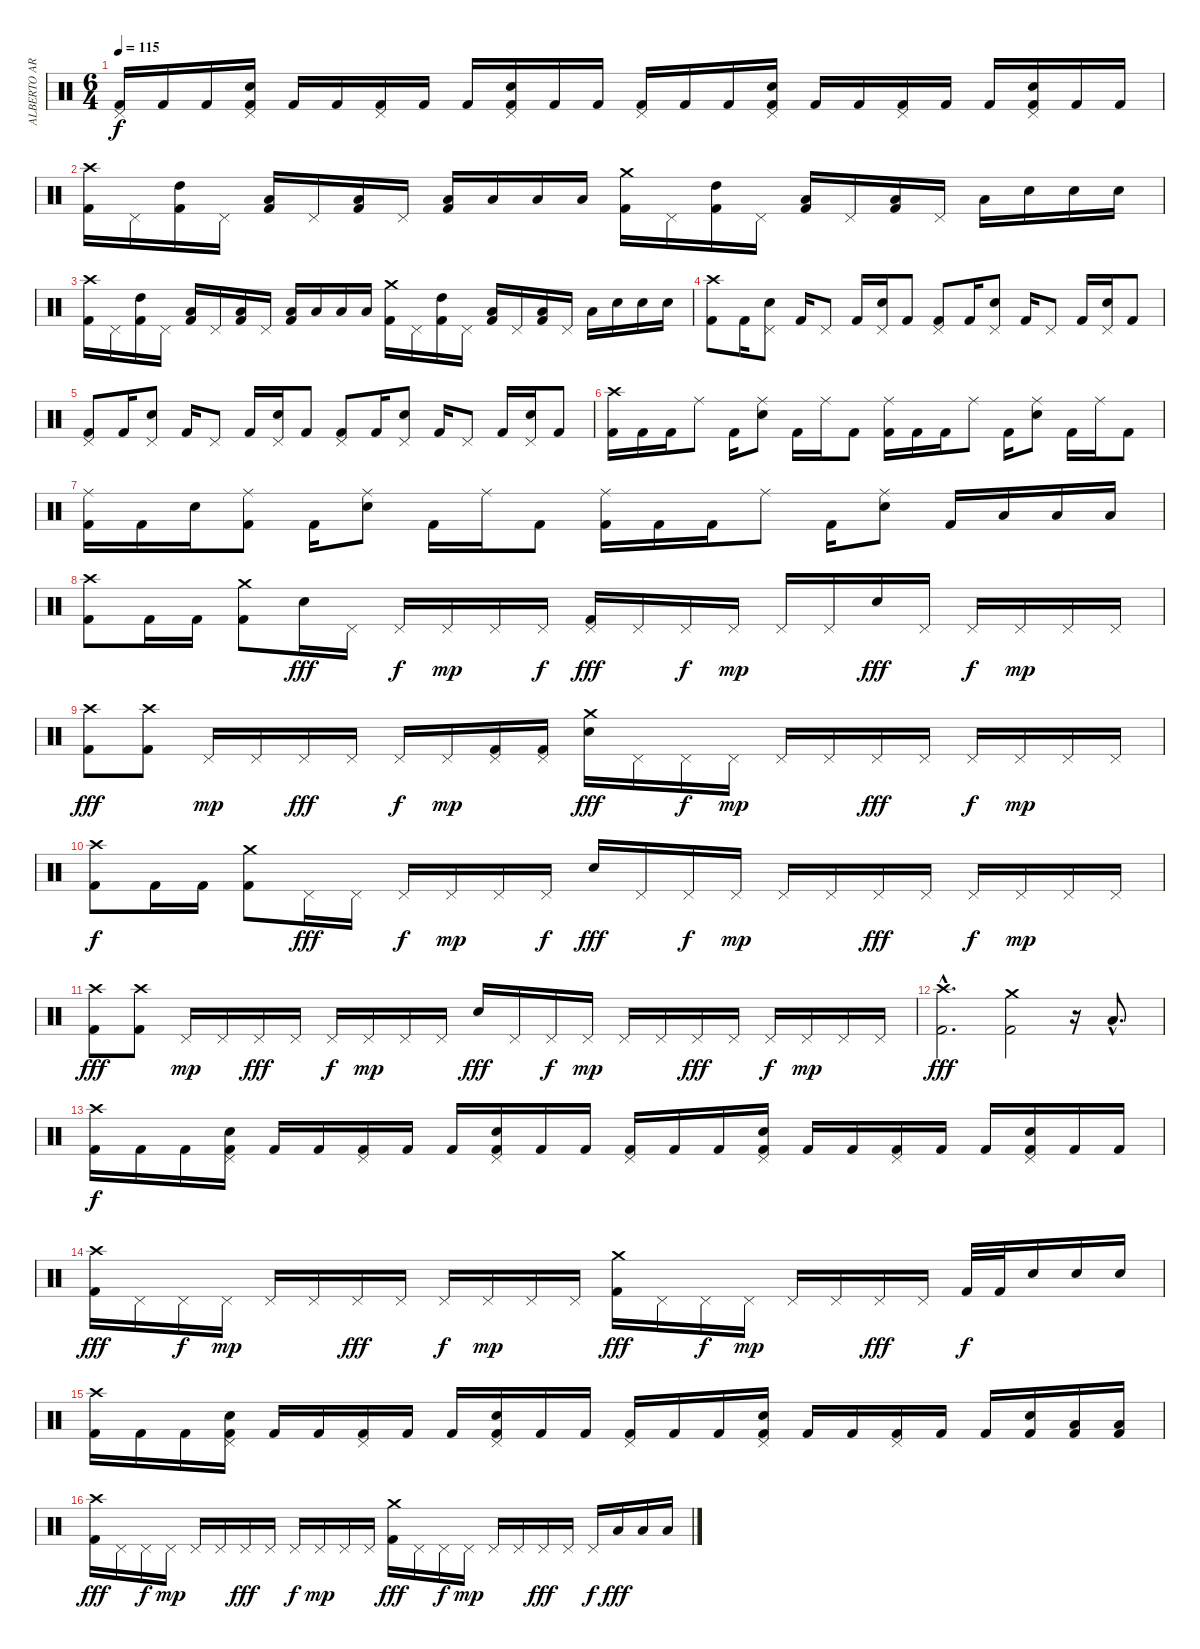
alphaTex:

\track ("ALBERTO ARDINES" "ALBERTO AR") {instrument percussion}
\staff {score}
\articulation defaults
\ts (6 4)
\tempo 115
\clef neutral
\ks c
("Pedal Hi-Hat (hit)" "Kick (hit) 2").16{dy f} "Kick (hit) 2".16 "Kick (hit) 2".16 ("Pedal Hi-Hat (hit)" "Electric Snare (hit)" "Kick (hit) 2").16 "Kick (hit) 2".16 "Kick (hit) 2".16 ("Pedal Hi-Hat (hit)" "Kick (hit) 2").16 "Kick (hit) 2".16 "Kick (hit) 2".16 ("Pedal Hi-Hat (hit)" "Electric Snare (hit)" "Kick (hit) 2").16 "Kick (hit) 2".16 "Kick (hit) 2".16 ("Pedal Hi-Hat (hit)" "Kick (hit) 2").16 "Kick (hit) 2".16 "Kick (hit) 2".16 ("Pedal Hi-Hat (hit)" "Electric Snare (hit)" "Kick (hit) 2").16 "Kick (hit) 2".16 "Kick (hit) 2".16 ("Pedal Hi-Hat (hit)" "Kick (hit) 2").16 "Kick (hit) 2".16 "Kick (hit) 2".16 ("Pedal Hi-Hat (hit)" "Electric Snare (hit)" "Kick (hit) 2").16 "Kick (hit) 2".16 "Kick (hit) 2".16 |
("Crash high (hit)" "Kick (hit) 2").16 "Pedal Hi-Hat (hit)".16 ("High Tom (hit)" "Kick (hit) 2").16 "Pedal Hi-Hat (hit)".16 ("Low Tom (hit)" "Kick (hit) 2").16 "Pedal Hi-Hat (hit)".16 ("Low Tom (hit)" "Kick (hit) 2").16 "Pedal Hi-Hat (hit)".16 ("Low Floor Tom (hit)" "Kick (hit) 2").16 "Low Tom (hit)".16 "Low Tom (hit)".16 "Low Tom (hit)".16 ("Crash medium (hit)" "Kick (hit) 2").16 "Pedal Hi-Hat (hit)".16 ("High Tom (hit)" "Kick (hit) 2").16 "Pedal Hi-Hat (hit)".16 ("Low Tom (hit)" "Kick (hit) 2").16 "Pedal Hi-Hat (hit)".16 ("Low Tom (hit)" "Kick (hit) 2").16 "Pedal Hi-Hat (hit)".16 "Low Floor Tom (hit)".16 "Electric Snare (hit)".16 "Electric Snare (hit)".16 "Electric Snare (hit)".16 |
("Crash high (hit)" "Kick (hit) 2").16 "Pedal Hi-Hat (hit)".16 ("High Tom (hit)" "Kick (hit) 2").16 "Pedal Hi-Hat (hit)".16 ("Low Tom (hit)" "Kick (hit) 2").16 "Pedal Hi-Hat (hit)".16 ("Low Tom (hit)" "Kick (hit) 2").16 "Pedal Hi-Hat (hit)".16 ("Low Floor Tom (hit)" "Kick (hit) 2").16 "Low Tom (hit)".16 "Low Tom (hit)".16 "Low Tom (hit)".16 ("Crash medium (hit)" "Kick (hit) 2").16 "Pedal Hi-Hat (hit)".16 ("High Tom (hit)" "Kick (hit) 2").16 "Pedal Hi-Hat (hit)".16 ("Low Tom (hit)" "Kick (hit) 2").16 "Pedal Hi-Hat (hit)".16 ("Low Tom (hit)" "Kick (hit) 2").16 "Pedal Hi-Hat (hit)".16 "Low Floor Tom (hit)".16 "Electric Snare (hit)".16 "Electric Snare (hit)".16 "Electric Snare (hit)".16 |
("Crash high (hit)" "Kick (hit) 2").8 "Kick (hit) 2".16 ("Pedal Hi-Hat (hit)" "Electric Snare (hit)").8 "Kick (hit) 2".16 "Pedal Hi-Hat (hit)".8 "Kick (hit) 2".16 ("Pedal Hi-Hat (hit)" "Electric Snare (hit)").16 "Kick (hit) 2".8 ("Pedal Hi-Hat (hit)" "Kick (hit) 2").8 "Kick (hit) 2".16 ("Pedal Hi-Hat (hit)" "Electric Snare (hit)").8 "Kick (hit) 2".16 "Pedal Hi-Hat (hit)".8 "Kick (hit) 2".16 ("Pedal Hi-Hat (hit)" "Electric Snare (hit)").16 "Kick (hit) 2".8 |
("Pedal Hi-Hat (hit)" "Kick (hit) 2").8 "Kick (hit) 2".16 ("Pedal Hi-Hat (hit)" "Electric Snare (hit)").8 "Kick (hit) 2".16 "Pedal Hi-Hat (hit)".8 "Kick (hit) 2".16 ("Pedal Hi-Hat (hit)" "Electric Snare (hit)").16 "Kick (hit) 2".8 ("Pedal Hi-Hat (hit)" "Kick (hit) 2").8 "Kick (hit) 2".16 ("Pedal Hi-Hat (hit)" "Electric Snare (hit)").8 "Kick (hit) 2".16 "Pedal Hi-Hat (hit)".8 "Kick (hit) 2".16 ("Pedal Hi-Hat (hit)" "Electric Snare (hit)").16 "Kick (hit) 2".8 |
("Crash high (hit)" "Kick (hit) 2").16 "Kick (hit) 2".16 "Kick (hit) 2".16 "Ride (middle)".8 "Kick (hit) 2".16 ("Ride (middle)" "Electric Snare (hit)").8 "Kick (hit) 2".16 "Ride (middle)".16 "Kick (hit) 2".8 ("Ride (middle)" "Kick (hit) 2").16 "Kick (hit) 2".16 "Kick (hit) 2".16 "Ride (middle)".8 "Kick (hit) 2".16 ("Ride (middle)" "Electric Snare (hit)").8 "Kick (hit) 2".16 "Ride (middle)".16 "Kick (hit) 2".8 |
("Ride (middle)" "Kick (hit) 2").16 "Kick (hit) 2".16 "Electric Snare (hit)".16 ("Ride (middle)" "Kick (hit) 2").8 "Kick (hit) 2".16 ("Ride (middle)" "Electric Snare (hit)").8 "Kick (hit) 2".16 "Ride (middle)".16 "Kick (hit) 2".8 ("Ride (middle)" "Kick (hit) 2").16 "Kick (hit) 2".16 "Kick (hit) 2".16 "Ride (middle)".8 "Kick (hit) 2".16 ("Ride (middle)" "Electric Snare (hit)").8 "Kick (hit) 2".16 "Low Tom (hit)".16 "Low Tom (hit)".16 "Low Tom (hit)".16 |
("Crash high (hit)" "Kick (hit) 2").8 "Kick (hit) 2".16 "Kick (hit) 2".16 ("Crash medium (hit)" "Kick (hit) 2").8 "Electric Snare (hit)".16{dy fff} "Pedal Hi-Hat (hit)".16 "Pedal Hi-Hat (hit)".16{dy f} "Pedal Hi-Hat (hit)".16{dy mp} "Pedal Hi-Hat (hit)".16 "Pedal Hi-Hat (hit)".16{dy f} ("Pedal Hi-Hat (hit)" "Kick (hit) 2").16{dy fff} "Pedal Hi-Hat (hit)".16 "Pedal Hi-Hat (hit)".16{dy f} "Pedal Hi-Hat (hit)".16{dy mp} "Pedal Hi-Hat (hit)".16 "Pedal Hi-Hat (hit)".16 "Electric Snare (hit)".16{dy fff} "Pedal Hi-Hat (hit)".16 "Pedal Hi-Hat (hit)".16{dy f} "Pedal Hi-Hat (hit)".16{dy mp} "Pedal Hi-Hat (hit)".16 "Pedal Hi-Hat (hit)".16 |
("Crash high (hit)" "Kick (hit) 2").8{dy fff} ("Crash high (hit)" "Kick (hit) 2").8 "Pedal Hi-Hat (hit)".16{dy mp} "Pedal Hi-Hat (hit)".16 "Pedal Hi-Hat (hit)".16{dy fff} "Pedal Hi-Hat (hit)".16 "Pedal Hi-Hat (hit)".16{dy f} "Pedal Hi-Hat (hit)".16{dy mp} ("Pedal Hi-Hat (hit)" "Kick (hit) 2").16 ("Pedal Hi-Hat (hit)" "Kick (hit) 2").16 ("Crash medium (hit)" "Electric Snare (hit)").16{dy fff} "Pedal Hi-Hat (hit)".16 "Pedal Hi-Hat (hit)".16{dy f} "Pedal Hi-Hat (hit)".16{dy mp} "Pedal Hi-Hat (hit)".16 "Pedal Hi-Hat (hit)".16 "Pedal Hi-Hat (hit)".16{dy fff} "Pedal Hi-Hat (hit)".16 "Pedal Hi-Hat (hit)".16{dy f} "Pedal Hi-Hat (hit)".16{dy mp} "Pedal Hi-Hat (hit)".16 "Pedal Hi-Hat (hit)".16 |
("Crash high (hit)" "Kick (hit) 2").8{dy f} "Kick (hit) 2".16 "Kick (hit) 2".16 ("Crash medium (hit)" "Kick (hit) 2").8 "Pedal Hi-Hat (hit)".16{dy fff} "Pedal Hi-Hat (hit)".16 "Pedal Hi-Hat (hit)".16{dy f} "Pedal Hi-Hat (hit)".16{dy mp} "Pedal Hi-Hat (hit)".16 "Pedal Hi-Hat (hit)".16{dy f} "Electric Snare (hit)".16{dy fff} "Pedal Hi-Hat (hit)".16 "Pedal Hi-Hat (hit)".16{dy f} "Pedal Hi-Hat (hit)".16{dy mp} "Pedal Hi-Hat (hit)".16 "Pedal Hi-Hat (hit)".16 "Pedal Hi-Hat (hit)".16{dy fff} "Pedal Hi-Hat (hit)".16 "Pedal Hi-Hat (hit)".16{dy f} "Pedal Hi-Hat (hit)".16{dy mp} "Pedal Hi-Hat (hit)".16 "Pedal Hi-Hat (hit)".16 |
("Crash high (hit)" "Kick (hit) 2").8{dy fff} ("Crash high (hit)" "Kick (hit) 2").8 "Pedal Hi-Hat (hit)".16{dy mp} "Pedal Hi-Hat (hit)".16 "Pedal Hi-Hat (hit)".16{dy fff} "Pedal Hi-Hat (hit)".16 "Pedal Hi-Hat (hit)".16{dy f} "Pedal Hi-Hat (hit)".16{dy mp} "Pedal Hi-Hat (hit)".16 "Pedal Hi-Hat (hit)".16 "Electric Snare (hit)".16{dy fff} "Pedal Hi-Hat (hit)".16 "Pedal Hi-Hat (hit)".16{dy f} "Pedal Hi-Hat (hit)".16{dy mp} "Pedal Hi-Hat (hit)".16 "Pedal Hi-Hat (hit)".16 "Pedal Hi-Hat (hit)".16{dy fff} "Pedal Hi-Hat (hit)".16 "Pedal Hi-Hat (hit)".16{dy f} "Pedal Hi-Hat (hit)".16{dy mp} "Pedal Hi-Hat (hit)".16 "Pedal Hi-Hat (hit)".16 |
("Crash high (hit)"{hac} "Kick (hit) 2"{hac}).2{d dy fff} ("Crash medium (hit)" "Kick (hit) 2").2 r.16 "Low Tom (hit)"{hac}.8{d} |
("Crash high (hit)" "Kick (hit) 2").16{dy f} "Kick (hit) 2".16 "Kick (hit) 2".16 ("Pedal Hi-Hat (hit)" "Electric Snare (hit)" "Kick (hit) 2").16 "Kick (hit) 2".16 "Kick (hit) 2".16 ("Pedal Hi-Hat (hit)" "Kick (hit) 2").16 "Kick (hit) 2".16 "Kick (hit) 2".16 ("Pedal Hi-Hat (hit)" "Electric Snare (hit)" "Kick (hit) 2").16 "Kick (hit) 2".16 "Kick (hit) 2".16 ("Pedal Hi-Hat (hit)" "Kick (hit) 2").16 "Kick (hit) 2".16 "Kick (hit) 2".16 ("Pedal Hi-Hat (hit)" "Electric Snare (hit)" "Kick (hit) 2").16 "Kick (hit) 2".16 "Kick (hit) 2".16 ("Pedal Hi-Hat (hit)" "Kick (hit) 2").16 "Kick (hit) 2".16 "Kick (hit) 2".16 ("Pedal Hi-Hat (hit)" "Electric Snare (hit)" "Kick (hit) 2").16 "Kick (hit) 2".16 "Kick (hit) 2".16 |
("Crash high (hit)" "Kick (hit) 2").16{dy fff} "Pedal Hi-Hat (hit)".16 "Pedal Hi-Hat (hit)".16{dy f} "Pedal Hi-Hat (hit)".16{dy mp} "Pedal Hi-Hat (hit)".16 "Pedal Hi-Hat (hit)".16 "Pedal Hi-Hat (hit)".16{dy fff} "Pedal Hi-Hat (hit)".16 "Pedal Hi-Hat (hit)".16{dy f} "Pedal Hi-Hat (hit)".16{dy mp} "Pedal Hi-Hat (hit)".16 "Pedal Hi-Hat (hit)".16 ("Crash medium (hit)" "Kick (hit) 2").16{dy fff} "Pedal Hi-Hat (hit)".16 "Pedal Hi-Hat (hit)".16{dy f} "Pedal Hi-Hat (hit)".16{dy mp} "Pedal Hi-Hat (hit)".16 "Pedal Hi-Hat (hit)".16 "Pedal Hi-Hat (hit)".16{dy fff} "Pedal Hi-Hat (hit)".16 "Kick (hit) 2".32{dy f} "Kick (hit) 2".32 "Electric Snare (hit)".16 "Electric Snare (hit)".16 "Electric Snare (hit)".16 |
("Crash high (hit)" "Kick (hit) 2").16 "Kick (hit) 2".16 "Kick (hit) 2".16 ("Pedal Hi-Hat (hit)" "Electric Snare (hit)" "Kick (hit) 2").16 "Kick (hit) 2".16 "Kick (hit) 2".16 ("Pedal Hi-Hat (hit)" "Kick (hit) 2").16 "Kick (hit) 2".16 "Kick (hit) 2".16 ("Pedal Hi-Hat (hit)" "Electric Snare (hit)" "Kick (hit) 2").16 "Kick (hit) 2".16 "Kick (hit) 2".16 ("Pedal Hi-Hat (hit)" "Kick (hit) 2").16 "Kick (hit) 2".16 "Kick (hit) 2".16 ("Pedal Hi-Hat (hit)" "Electric Snare (hit)" "Kick (hit) 2").16 "Kick (hit) 2".16 "Kick (hit) 2".16 ("Pedal Hi-Hat (hit)" "Kick (hit) 2").16 "Kick (hit) 2".16 "Kick (hit) 2".16 ("Electric Snare (hit)" "Kick (hit) 2").16 ("Low Tom (hit)" "Kick (hit) 2").16 ("Low Tom (hit)" "Kick (hit) 2").16 |
("Crash high (hit)" "Kick (hit) 2").16{dy fff} "Pedal Hi-Hat (hit)".16 "Pedal Hi-Hat (hit)".16{dy f} "Pedal Hi-Hat (hit)".16{dy mp} "Pedal Hi-Hat (hit)".16 "Pedal Hi-Hat (hit)".16 "Pedal Hi-Hat (hit)".16{dy fff} "Pedal Hi-Hat (hit)".16 "Pedal Hi-Hat (hit)".16{dy f} "Pedal Hi-Hat (hit)".16{dy mp} "Pedal Hi-Hat (hit)".16 "Pedal Hi-Hat (hit)".16 ("Crash medium (hit)" "Kick (hit) 2").16{dy fff} "Pedal Hi-Hat (hit)".16 "Pedal Hi-Hat (hit)".16{dy f} "Pedal Hi-Hat (hit)".16{dy mp} "Pedal Hi-Hat (hit)".16 "Pedal Hi-Hat (hit)".16 "Pedal Hi-Hat (hit)".16{dy fff} "Pedal Hi-Hat (hit)".16 "Pedal Hi-Hat (hit)".16{dy f} "Low Tom (hit)".16{dy fff} "Low Tom (hit)".16 "Low Tom (hit)".16
